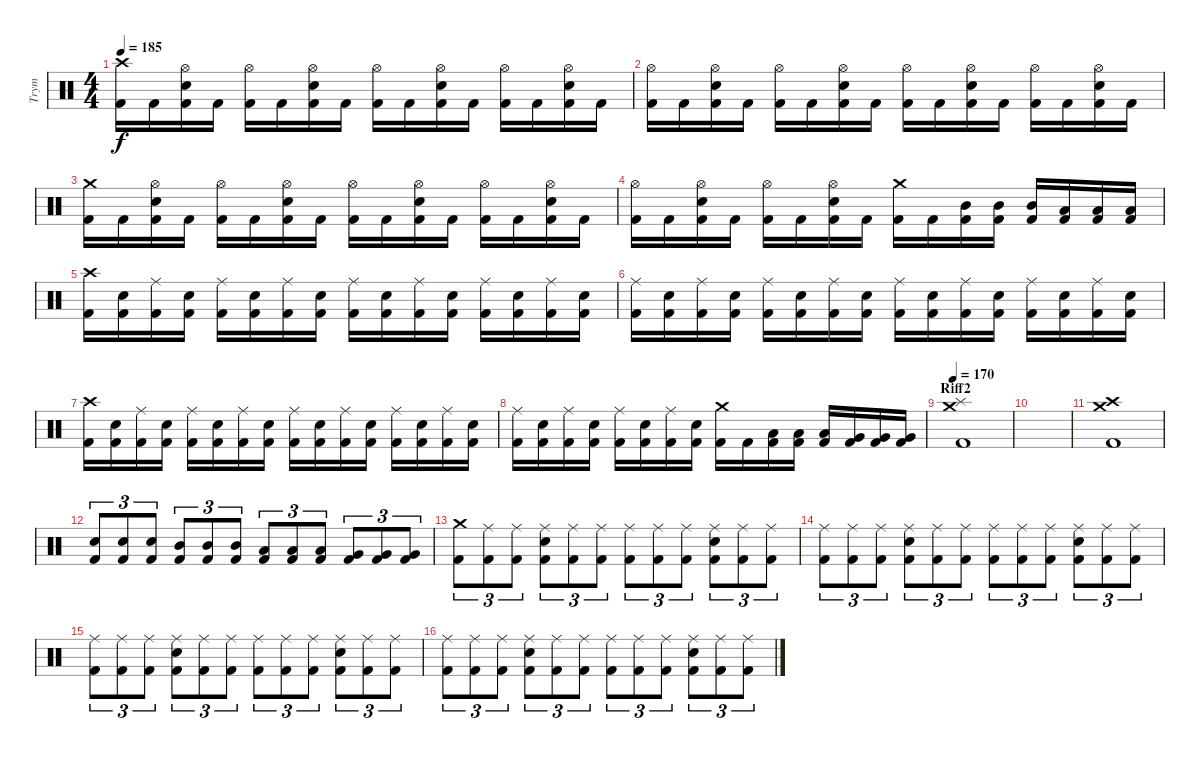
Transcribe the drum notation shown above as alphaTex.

\track ("Trym" "Trym") {instrument percussion}
\staff {score}
\articulation defaults
\ts (4 4)
\tempo 185
\clef neutral
\ks c
("Kick (hit) 2" "Crash high (hit)").16{dy f} "Kick (hit) 2".16 ("Kick (hit) 2" "Electric Snare (hit)" "Hi-Hat (open)").16 "Kick (hit) 2".16 ("Kick (hit) 2" "Hi-Hat (open)").16 "Kick (hit) 2".16 ("Kick (hit) 2" "Electric Snare (hit)" "Hi-Hat (open)").16 "Kick (hit) 2".16 ("Kick (hit) 2" "Hi-Hat (open)").16 "Kick (hit) 2".16 ("Kick (hit) 2" "Electric Snare (hit)" "Hi-Hat (open)").16 "Kick (hit) 2".16 ("Kick (hit) 2" "Hi-Hat (open)").16 "Kick (hit) 2".16 ("Kick (hit) 2" "Electric Snare (hit)" "Hi-Hat (open)").16 "Kick (hit) 2".16 |
("Kick (hit) 2" "Hi-Hat (open)").16 "Kick (hit) 2".16 ("Kick (hit) 2" "Electric Snare (hit)" "Hi-Hat (open)").16 "Kick (hit) 2".16 ("Kick (hit) 2" "Hi-Hat (open)").16 "Kick (hit) 2".16 ("Kick (hit) 2" "Electric Snare (hit)" "Hi-Hat (open)").16 "Kick (hit) 2".16 ("Kick (hit) 2" "Hi-Hat (open)").16 "Kick (hit) 2".16 ("Kick (hit) 2" "Electric Snare (hit)" "Hi-Hat (open)").16 "Kick (hit) 2".16 ("Kick (hit) 2" "Hi-Hat (open)").16 "Kick (hit) 2".16 ("Kick (hit) 2" "Electric Snare (hit)" "Hi-Hat (open)").16 "Kick (hit) 2".16 |
("Kick (hit) 2" "Crash medium (hit)").16 "Kick (hit) 2".16 ("Kick (hit) 2" "Electric Snare (hit)" "Hi-Hat (open)").16 "Kick (hit) 2".16 ("Kick (hit) 2" "Hi-Hat (open)").16 "Kick (hit) 2".16 ("Kick (hit) 2" "Electric Snare (hit)" "Hi-Hat (open)").16 "Kick (hit) 2".16 ("Kick (hit) 2" "Hi-Hat (open)").16 "Kick (hit) 2".16 ("Kick (hit) 2" "Electric Snare (hit)" "Hi-Hat (open)").16 "Kick (hit) 2".16 ("Kick (hit) 2" "Hi-Hat (open)").16 "Kick (hit) 2".16 ("Kick (hit) 2" "Electric Snare (hit)" "Hi-Hat (open)").16 "Kick (hit) 2".16 |
("Kick (hit) 2" "Hi-Hat (open)").16 "Kick (hit) 2".16 ("Kick (hit) 2" "Electric Snare (hit)" "Hi-Hat (open)").16 "Kick (hit) 2".16 ("Kick (hit) 2" "Hi-Hat (open)").16 "Kick (hit) 2".16 ("Kick (hit) 2" "Electric Snare (hit)" "Hi-Hat (open)").16 "Kick (hit) 2".16 ("Kick (hit) 2" "Crash medium (hit)").16 "Kick (hit) 2".16 ("Kick (hit) 2" "Mid Tom (hit)").16 ("Kick (hit) 2" "Mid Tom (hit)").16 ("Kick (hit) 2" "Mid Tom (hit)").16 ("Kick (hit) 2" "Low Tom (hit)").16 ("Kick (hit) 2" "Low Tom (hit)").16 ("Kick (hit) 2" "Low Tom (hit)").16 |
("Kick (hit) 2" "Crash high (hit)").16 ("Kick (hit) 2" "Electric Snare (hit)").16 ("Kick (hit) 2" "Ride (middle)").16 ("Kick (hit) 2" "Electric Snare (hit)").16 ("Kick (hit) 2" "Ride (middle)").16 ("Kick (hit) 2" "Electric Snare (hit)").16 ("Kick (hit) 2" "Ride (middle)").16 ("Kick (hit) 2" "Electric Snare (hit)").16 ("Kick (hit) 2" "Ride (middle)").16 ("Kick (hit) 2" "Electric Snare (hit)").16 ("Kick (hit) 2" "Ride (middle)").16 ("Kick (hit) 2" "Electric Snare (hit)").16 ("Kick (hit) 2" "Ride (middle)").16 ("Kick (hit) 2" "Electric Snare (hit)").16 ("Kick (hit) 2" "Ride (middle)").16 ("Kick (hit) 2" "Electric Snare (hit)").16 |
("Kick (hit) 2" "Ride (middle)").16 ("Kick (hit) 2" "Electric Snare (hit)").16 ("Kick (hit) 2" "Ride (middle)").16 ("Kick (hit) 2" "Electric Snare (hit)").16 ("Kick (hit) 2" "Ride (middle)").16 ("Kick (hit) 2" "Electric Snare (hit)").16 ("Kick (hit) 2" "Ride (middle)").16 ("Kick (hit) 2" "Electric Snare (hit)").16 ("Kick (hit) 2" "Ride (middle)").16 ("Kick (hit) 2" "Electric Snare (hit)").16 ("Kick (hit) 2" "Ride (middle)").16 ("Kick (hit) 2" "Electric Snare (hit)").16 ("Kick (hit) 2" "Ride (middle)").16 ("Kick (hit) 2" "Electric Snare (hit)").16 ("Kick (hit) 2" "Ride (middle)").16 ("Kick (hit) 2" "Electric Snare (hit)").16 |
("Kick (hit) 2" "Crash high (hit)").16 ("Kick (hit) 2" "Electric Snare (hit)").16 ("Kick (hit) 2" "Ride (middle)").16 ("Kick (hit) 2" "Electric Snare (hit)").16 ("Kick (hit) 2" "Ride (middle)").16 ("Kick (hit) 2" "Electric Snare (hit)").16 ("Kick (hit) 2" "Ride (middle)").16 ("Kick (hit) 2" "Electric Snare (hit)").16 ("Kick (hit) 2" "Ride (middle)").16 ("Kick (hit) 2" "Electric Snare (hit)").16 ("Kick (hit) 2" "Ride (middle)").16 ("Kick (hit) 2" "Electric Snare (hit)").16 ("Kick (hit) 2" "Ride (middle)").16 ("Kick (hit) 2" "Electric Snare (hit)").16 ("Kick (hit) 2" "Ride (middle)").16 ("Kick (hit) 2" "Electric Snare (hit)").16 |
("Kick (hit) 2" "Ride (middle)").16 ("Kick (hit) 2" "Electric Snare (hit)").16 ("Kick (hit) 2" "Ride (middle)").16 ("Kick (hit) 2" "Electric Snare (hit)").16 ("Kick (hit) 2" "Ride (middle)").16 ("Kick (hit) 2" "Electric Snare (hit)").16 ("Kick (hit) 2" "Ride (middle)").16 ("Kick (hit) 2" "Electric Snare (hit)").16 ("Kick (hit) 2" "Crash medium (hit)").16 "Kick (hit) 2".16 ("Kick (hit) 2" "Low Tom (hit)").16 ("Kick (hit) 2" "Low Tom (hit)").16 ("Kick (hit) 2" "Low Tom (hit)").16 ("Kick (hit) 2" "Very Low Tom (hit)").16 ("Kick (hit) 2" "Very Low Tom (hit)").16 ("Kick (hit) 2" "Very Low Tom (hit)").16 |
\section ("" "Riff2")
\tempo 170
("Kick (hit) 2" "Splash (hit)" "Crash medium (hit)").1 |
|
("Kick (hit) 2" "Crash high (hit)" "Crash medium (hit)").1 |
("Kick (hit) 2" "Electric Snare (hit)").8{tu (3 2)} ("Kick (hit) 2" "Electric Snare (hit)").8{tu (3 2)} ("Kick (hit) 2" "Electric Snare (hit)").8{tu (3 2)} ("Kick (hit) 2" "Mid Tom (hit)").8{tu (3 2)} ("Kick (hit) 2" "Mid Tom (hit)").8{tu (3 2)} ("Kick (hit) 2" "Mid Tom (hit)").8{tu (3 2)} ("Kick (hit) 2" "Low Tom (hit)").8{tu (3 2)} ("Kick (hit) 2" "Low Tom (hit)").8{tu (3 2)} ("Kick (hit) 2" "Low Tom (hit)").8{tu (3 2)} ("Kick (hit) 2" "Very Low Tom (hit)").8{tu (3 2)} ("Kick (hit) 2" "Very Low Tom (hit)").8{tu (3 2)} ("Kick (hit) 2" "Very Low Tom (hit)").8{tu (3 2)} |
("Kick (hit) 2" "Crash medium (hit)").8{tu (3 2)} ("Kick (hit) 2" "Ride (middle)").8{tu (3 2)} ("Kick (hit) 2" "Ride (middle)").8{tu (3 2)} ("Kick (hit) 2" "Electric Snare (hit)" "Ride (middle)").8{tu (3 2)} ("Kick (hit) 2" "Ride (middle)").8{tu (3 2)} ("Kick (hit) 2" "Ride (middle)").8{tu (3 2)} ("Kick (hit) 2" "Ride (middle)").8{tu (3 2)} ("Kick (hit) 2" "Ride (middle)").8{tu (3 2)} ("Kick (hit) 2" "Ride (middle)").8{tu (3 2)} ("Kick (hit) 2" "Electric Snare (hit)" "Ride (middle)").8{tu (3 2)} ("Kick (hit) 2" "Ride (middle)").8{tu (3 2)} ("Kick (hit) 2" "Ride (middle)").8{tu (3 2)} |
("Kick (hit) 2" "Ride (middle)").8{tu (3 2)} ("Kick (hit) 2" "Ride (middle)").8{tu (3 2)} ("Kick (hit) 2" "Ride (middle)").8{tu (3 2)} ("Kick (hit) 2" "Electric Snare (hit)" "Ride (middle)").8{tu (3 2)} ("Kick (hit) 2" "Ride (middle)").8{tu (3 2)} ("Kick (hit) 2" "Ride (middle)").8{tu (3 2)} ("Kick (hit) 2" "Ride (middle)").8{tu (3 2)} ("Kick (hit) 2" "Ride (middle)").8{tu (3 2)} ("Kick (hit) 2" "Ride (middle)").8{tu (3 2)} ("Kick (hit) 2" "Electric Snare (hit)" "Ride (middle)").8{tu (3 2)} ("Kick (hit) 2" "Ride (middle)").8{tu (3 2)} ("Kick (hit) 2" "Ride (middle)").8{tu (3 2)} |
("Kick (hit) 2" "Ride (middle)").8{tu (3 2)} ("Kick (hit) 2" "Ride (middle)").8{tu (3 2)} ("Kick (hit) 2" "Ride (middle)").8{tu (3 2)} ("Kick (hit) 2" "Electric Snare (hit)" "Ride (middle)").8{tu (3 2)} ("Kick (hit) 2" "Ride (middle)").8{tu (3 2)} ("Kick (hit) 2" "Ride (middle)").8{tu (3 2)} ("Kick (hit) 2" "Ride (middle)").8{tu (3 2)} ("Kick (hit) 2" "Ride (middle)").8{tu (3 2)} ("Kick (hit) 2" "Ride (middle)").8{tu (3 2)} ("Kick (hit) 2" "Electric Snare (hit)" "Ride (middle)").8{tu (3 2)} ("Kick (hit) 2" "Ride (middle)").8{tu (3 2)} ("Kick (hit) 2" "Ride (middle)").8{tu (3 2)} |
("Kick (hit) 2" "Ride (middle)").8{tu (3 2)} ("Kick (hit) 2" "Ride (middle)").8{tu (3 2)} ("Kick (hit) 2" "Ride (middle)").8{tu (3 2)} ("Kick (hit) 2" "Electric Snare (hit)" "Ride (middle)").8{tu (3 2)} ("Kick (hit) 2" "Ride (middle)").8{tu (3 2)} ("Kick (hit) 2" "Ride (middle)").8{tu (3 2)} ("Kick (hit) 2" "Ride (middle)").8{tu (3 2)} ("Kick (hit) 2" "Ride (middle)").8{tu (3 2)} ("Kick (hit) 2" "Ride (middle)").8{tu (3 2)} ("Kick (hit) 2" "Electric Snare (hit)" "Ride (middle)").8{tu (3 2)} ("Kick (hit) 2" "Ride (middle)").8{tu (3 2)} ("Kick (hit) 2" "Ride (middle)").8{tu (3 2)}
